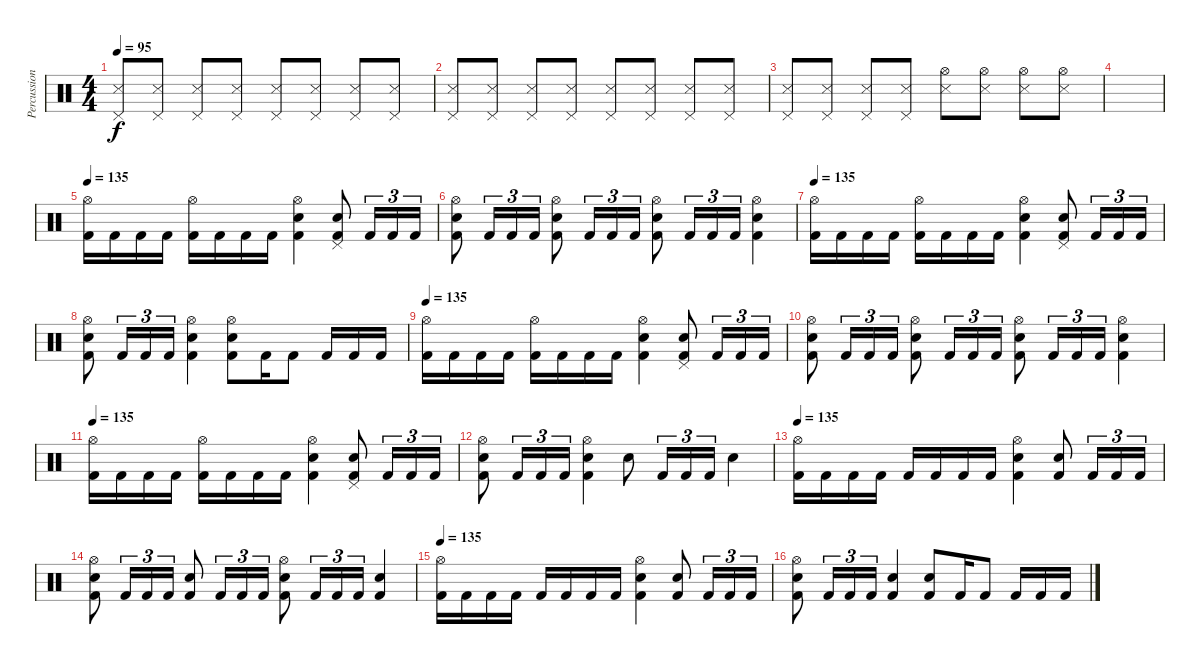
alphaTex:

\track ("Percussion" "Percussion") {instrument percussion}
\staff {score}
\articulation defaults
\ts (4 4)
\tempo 95
\clef neutral
\ks c
("Pedal Hi-Hat (hit)" "Metronome (hit)").8{dy f} ("Pedal Hi-Hat (hit)" "Metronome (hit)").8 ("Pedal Hi-Hat (hit)" "Metronome (hit)").8 ("Pedal Hi-Hat (hit)" "Metronome (hit)").8 ("Pedal Hi-Hat (hit)" "Metronome (hit)").8 ("Pedal Hi-Hat (hit)" "Metronome (hit)").8 ("Pedal Hi-Hat (hit)" "Metronome (hit)").8 ("Pedal Hi-Hat (hit)" "Metronome (hit)").8 |
("Pedal Hi-Hat (hit)" "Metronome (hit)").8 ("Pedal Hi-Hat (hit)" "Metronome (hit)").8 ("Pedal Hi-Hat (hit)" "Metronome (hit)").8 ("Pedal Hi-Hat (hit)" "Metronome (hit)").8 ("Pedal Hi-Hat (hit)" "Metronome (hit)").8 ("Pedal Hi-Hat (hit)" "Metronome (hit)").8 ("Pedal Hi-Hat (hit)" "Metronome (hit)").8 ("Pedal Hi-Hat (hit)" "Metronome (hit)").8 |
("Pedal Hi-Hat (hit)" "Metronome (hit)").8 ("Pedal Hi-Hat (hit)" "Metronome (hit)").8 ("Pedal Hi-Hat (hit)" "Metronome (hit)").8 ("Pedal Hi-Hat (hit)" "Metronome (hit)").8 ("Hi-Hat (open)" "Metronome (hit)").8 ("Hi-Hat (open)" "Metronome (hit)").8 ("Hi-Hat (open)" "Metronome (hit)").8 ("Hi-Hat (open)" "Metronome (hit)").8 |
|
\tempo 135
("Hi-Hat (open)" "Kick (hit) 2").16 "Kick (hit) 2".16 "Kick (hit) 2".16 "Kick (hit) 2".16 ("Hi-Hat (open)" "Kick (hit) 2").16 "Kick (hit) 2".16 "Kick (hit) 2".16 "Kick (hit) 2".16 ("Hi-Hat (open)" "Electric Snare (hit)" "Kick (hit) 2").4 ("Pedal Hi-Hat (hit)" "Electric Snare (hit)" "Kick (hit) 2").8 "Kick (hit) 2".16{tu (3 2)} "Kick (hit) 2".16{tu (3 2)} "Kick (hit) 2".16{tu (3 2)} |
("Hi-Hat (open)" "Electric Snare (hit)" "Kick (hit) 2").8 "Kick (hit) 2".16{tu (3 2)} "Kick (hit) 2".16{tu (3 2)} "Kick (hit) 2".16{tu (3 2)} ("Hi-Hat (open)" "Electric Snare (hit)" "Kick (hit) 2").8 "Kick (hit) 2".16{tu (3 2)} "Kick (hit) 2".16{tu (3 2)} "Kick (hit) 2".16{tu (3 2)} ("Hi-Hat (open)" "Electric Snare (hit)" "Kick (hit) 2").8 "Kick (hit) 2".16{tu (3 2)} "Kick (hit) 2".16{tu (3 2)} "Kick (hit) 2".16{tu (3 2)} ("Hi-Hat (open)" "Electric Snare (hit)" "Kick (hit) 2").4 |
\tempo 135
("Hi-Hat (open)" "Kick (hit) 2").16 "Kick (hit) 2".16 "Kick (hit) 2".16 "Kick (hit) 2".16 ("Hi-Hat (open)" "Kick (hit) 2").16 "Kick (hit) 2".16 "Kick (hit) 2".16 "Kick (hit) 2".16 ("Hi-Hat (open)" "Electric Snare (hit)" "Kick (hit) 2").4 ("Pedal Hi-Hat (hit)" "Electric Snare (hit)" "Kick (hit) 2").8 "Kick (hit) 2".16{tu (3 2)} "Kick (hit) 2".16{tu (3 2)} "Kick (hit) 2".16{tu (3 2)} |
("Hi-Hat (open)" "Electric Snare (hit)" "Kick (hit) 2").8 "Kick (hit) 2".16{tu (3 2)} "Kick (hit) 2".16{tu (3 2)} "Kick (hit) 2".16{tu (3 2)} ("Hi-Hat (open)" "Electric Snare (hit)" "Kick (hit) 2").4 ("Hi-Hat (open)" "Electric Snare (hit)" "Kick (hit) 2").8 "Kick (hit) 2".16 "Kick (hit) 2".8 "Kick (hit) 2".16 "Kick (hit) 2".16 "Kick (hit) 2".16 |
\tempo 135
("Hi-Hat (open)" "Kick (hit) 2").16 "Kick (hit) 2".16 "Kick (hit) 2".16 "Kick (hit) 2".16 ("Hi-Hat (open)" "Kick (hit) 2").16 "Kick (hit) 2".16 "Kick (hit) 2".16 "Kick (hit) 2".16 ("Hi-Hat (open)" "Electric Snare (hit)" "Kick (hit) 2").4 ("Pedal Hi-Hat (hit)" "Electric Snare (hit)" "Kick (hit) 2").8 "Kick (hit) 2".16{tu (3 2)} "Kick (hit) 2".16{tu (3 2)} "Kick (hit) 2".16{tu (3 2)} |
("Hi-Hat (open)" "Electric Snare (hit)" "Kick (hit) 2").8 "Kick (hit) 2".16{tu (3 2)} "Kick (hit) 2".16{tu (3 2)} "Kick (hit) 2".16{tu (3 2)} ("Hi-Hat (open)" "Electric Snare (hit)" "Kick (hit) 2").8 "Kick (hit) 2".16{tu (3 2)} "Kick (hit) 2".16{tu (3 2)} "Kick (hit) 2".16{tu (3 2)} ("Hi-Hat (open)" "Electric Snare (hit)" "Kick (hit) 2").8 "Kick (hit) 2".16{tu (3 2)} "Kick (hit) 2".16{tu (3 2)} "Kick (hit) 2".16{tu (3 2)} ("Hi-Hat (open)" "Electric Snare (hit)" "Kick (hit) 2").4 |
\tempo 135
("Hi-Hat (open)" "Kick (hit) 2").16 "Kick (hit) 2".16 "Kick (hit) 2".16 "Kick (hit) 2".16 ("Hi-Hat (open)" "Kick (hit) 2").16 "Kick (hit) 2".16 "Kick (hit) 2".16 "Kick (hit) 2".16 ("Hi-Hat (open)" "Electric Snare (hit)" "Kick (hit) 2").4 ("Pedal Hi-Hat (hit)" "Electric Snare (hit)" "Kick (hit) 2").8 "Kick (hit) 2".16{tu (3 2)} "Kick (hit) 2".16{tu (3 2)} "Kick (hit) 2".16{tu (3 2)} |
("Hi-Hat (open)" "Electric Snare (hit)" "Kick (hit) 2").8 "Kick (hit) 2".16{tu (3 2)} "Kick (hit) 2".16{tu (3 2)} "Kick (hit) 2".16{tu (3 2)} ("Hi-Hat (open)" "Electric Snare (hit)" "Kick (hit) 2").4 "Electric Snare (hit)".8 "Kick (hit) 2".16{tu (3 2)} "Kick (hit) 2".16{tu (3 2)} "Kick (hit) 2".16{tu (3 2)} "Electric Snare (hit)".4 |
\tempo 135
("Hi-Hat (open)" "Kick (hit) 2").16 "Kick (hit) 2".16 "Kick (hit) 2".16 "Kick (hit) 2".16 "Kick (hit) 2".16 "Kick (hit) 2".16 "Kick (hit) 2".16 "Kick (hit) 2".16 ("Hi-Hat (open)" "Electric Snare (hit)" "Kick (hit) 2").4 ("Electric Snare (hit)" "Kick (hit) 2").8 "Kick (hit) 2".16{tu (3 2)} "Kick (hit) 2".16{tu (3 2)} "Kick (hit) 2".16{tu (3 2)} |
("Hi-Hat (open)" "Electric Snare (hit)" "Kick (hit) 2").8 "Kick (hit) 2".16{tu (3 2)} "Kick (hit) 2".16{tu (3 2)} "Kick (hit) 2".16{tu (3 2)} ("Electric Snare (hit)" "Kick (hit) 2").8 "Kick (hit) 2".16{tu (3 2)} "Kick (hit) 2".16{tu (3 2)} "Kick (hit) 2".16{tu (3 2)} ("Hi-Hat (open)" "Electric Snare (hit)" "Kick (hit) 2").8 "Kick (hit) 2".16{tu (3 2)} "Kick (hit) 2".16{tu (3 2)} "Kick (hit) 2".16{tu (3 2)} ("Electric Snare (hit)" "Kick (hit) 2").4 |
\tempo 135
("Hi-Hat (open)" "Kick (hit) 2").16 "Kick (hit) 2".16 "Kick (hit) 2".16 "Kick (hit) 2".16 "Kick (hit) 2".16 "Kick (hit) 2".16 "Kick (hit) 2".16 "Kick (hit) 2".16 ("Hi-Hat (open)" "Electric Snare (hit)" "Kick (hit) 2").4 ("Electric Snare (hit)" "Kick (hit) 2").8 "Kick (hit) 2".16{tu (3 2)} "Kick (hit) 2".16{tu (3 2)} "Kick (hit) 2".16{tu (3 2)} |
("Hi-Hat (open)" "Electric Snare (hit)" "Kick (hit) 2").8 "Kick (hit) 2".16{tu (3 2)} "Kick (hit) 2".16{tu (3 2)} "Kick (hit) 2".16{tu (3 2)} ("Electric Snare (hit)" "Kick (hit) 2").4 ("Electric Snare (hit)" "Kick (hit) 2").8 "Kick (hit) 2".16 "Kick (hit) 2".8 "Kick (hit) 2".16 "Kick (hit) 2".16 "Kick (hit) 2".16
